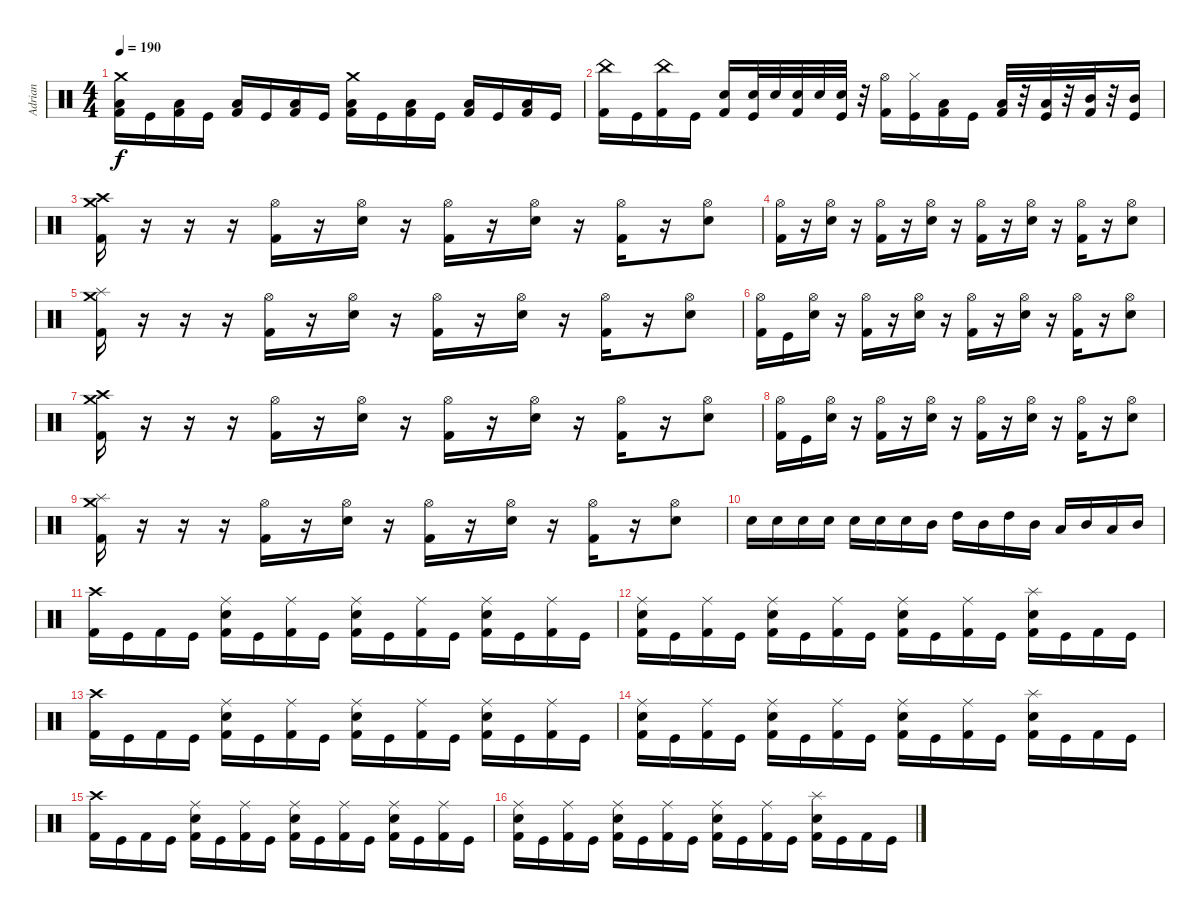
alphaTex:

\track ("Adrian" "Adrian") {instrument percussion}
\staff {score}
\articulation defaults
\ts (4 4)
\tempo 190
\clef neutral
\ks c
("Crash medium (hit)" "Low Tom (hit)" "Kick (hit) 2").16{dy f} "Kick (hit)".16 ("Low Tom (hit)" "Kick (hit) 2").16 "Kick (hit)".16 ("Low Tom (hit)" "Kick (hit) 2").16 "Kick (hit)".16 ("Low Tom (hit)" "Kick (hit) 2").16 "Kick (hit)".16 ("Crash medium (hit)" "Low Tom (hit)" "Kick (hit) 2").16 "Kick (hit)".16 ("Low Tom (hit)" "Kick (hit) 2").16 "Kick (hit)".16 ("Low Tom (hit)" "Kick (hit) 2").16 "Kick (hit)".16 ("Low Tom (hit)" "Kick (hit) 2").16 "Kick (hit)".16 |
("China (hit)" "Kick (hit) 2").16 "Kick (hit)".16 ("China (hit)" "Kick (hit) 2").16 "Kick (hit)".16 ("Electric Snare (hit)" "Kick (hit) 2").16 ("Electric Snare (hit)" "Kick (hit)").32 "Electric Snare (hit)".32 ("Electric Snare (hit)" "Kick (hit) 2").32 "Electric Snare (hit)".32 ("Electric Snare (hit)" "Kick (hit)").32 r.32 ("Hi-Hat (open)" "Kick (hit) 2").16 ("Hi-Hat (closed)" "Kick (hit)").16 ("Low Tom (hit)" "Kick (hit) 2").16 "Kick (hit)".16 ("Low Tom (hit)" "Kick (hit) 2").32 r.32 ("Low Tom (hit)" "Kick (hit)").32 r.32 ("Mid Tom (hit)" "Kick (hit) 2").32 r.32 ("Mid Tom (hit)" "Kick (hit)").16 |
("Crash high (hit)" "Crash medium (hit)" "Kick (hit) 2").16 r.16 r.16 r.16 ("Hi-Hat (open)" "Kick (hit) 2").16 r.16 ("Hi-Hat (open)" "Electric Snare (hit)").16 r.16 ("Hi-Hat (open)" "Kick (hit) 2").16 r.16 ("Hi-Hat (open)" "Electric Snare (hit)").16 r.16 ("Hi-Hat (open)" "Kick (hit) 2").16 r.16 ("Hi-Hat (open)" "Electric Snare (hit)").8 |
("Hi-Hat (open)" "Kick (hit) 2").16 r.16 ("Hi-Hat (open)" "Electric Snare (hit)").16 r.16 ("Hi-Hat (open)" "Kick (hit) 2").16 r.16 ("Hi-Hat (open)" "Electric Snare (hit)").16 r.16 ("Hi-Hat (open)" "Kick (hit) 2").16 r.16 ("Hi-Hat (open)" "Electric Snare (hit)").16 r.16 ("Hi-Hat (open)" "Kick (hit) 2").16 r.16 ("Hi-Hat (open)" "Electric Snare (hit)").8 |
("Splash (hit)" "Crash medium (hit)" "Kick (hit) 2").16 r.16 r.16 r.16 ("Hi-Hat (open)" "Kick (hit) 2").16 r.16 ("Hi-Hat (open)" "Electric Snare (hit)").16 r.16 ("Hi-Hat (open)" "Kick (hit) 2").16 r.16 ("Hi-Hat (open)" "Electric Snare (hit)").16 r.16 ("Hi-Hat (open)" "Kick (hit) 2").16 r.16 ("Hi-Hat (open)" "Electric Snare (hit)").8 |
("Hi-Hat (open)" "Kick (hit) 2").16 "Kick (hit)".16 ("Hi-Hat (open)" "Electric Snare (hit)").16 r.16 ("Hi-Hat (open)" "Kick (hit) 2").16 r.16 ("Hi-Hat (open)" "Electric Snare (hit)").16 r.16 ("Hi-Hat (open)" "Kick (hit) 2").16 r.16 ("Hi-Hat (open)" "Electric Snare (hit)").16 r.16 ("Hi-Hat (open)" "Kick (hit) 2").16 r.16 ("Hi-Hat (open)" "Electric Snare (hit)").8 |
("Crash high (hit)" "Crash medium (hit)" "Kick (hit) 2").16 r.16 r.16 r.16 ("Hi-Hat (open)" "Kick (hit) 2").16 r.16 ("Hi-Hat (open)" "Electric Snare (hit)").16 r.16 ("Hi-Hat (open)" "Kick (hit) 2").16 r.16 ("Hi-Hat (open)" "Electric Snare (hit)").16 r.16 ("Hi-Hat (open)" "Kick (hit) 2").16 r.16 ("Hi-Hat (open)" "Electric Snare (hit)").8 |
("Hi-Hat (open)" "Kick (hit) 2").16 "Kick (hit)".16 ("Hi-Hat (open)" "Electric Snare (hit)").16 r.16 ("Hi-Hat (open)" "Kick (hit) 2").16 r.16 ("Hi-Hat (open)" "Electric Snare (hit)").16 r.16 ("Hi-Hat (open)" "Kick (hit) 2").16 r.16 ("Hi-Hat (open)" "Electric Snare (hit)").16 r.16 ("Hi-Hat (open)" "Kick (hit) 2").16 r.16 ("Hi-Hat (open)" "Electric Snare (hit)").8 |
("Splash (hit)" "Crash medium (hit)" "Kick (hit) 2").16 r.16 r.16 r.16 ("Hi-Hat (open)" "Kick (hit) 2").16 r.16 ("Hi-Hat (open)" "Electric Snare (hit)").16 r.16 ("Hi-Hat (open)" "Kick (hit) 2").16 r.16 ("Hi-Hat (open)" "Electric Snare (hit)").16 r.16 ("Hi-Hat (open)" "Kick (hit) 2").16 r.16 ("Hi-Hat (open)" "Electric Snare (hit)").8 |
"Electric Snare (hit)".16 "Electric Snare (hit)".16 "Electric Snare (hit)".16 "Electric Snare (hit)".16 "Electric Snare (hit)".16 "Electric Snare (hit)".16 "Electric Snare (hit)".16 "Mid Tom (hit)".16 "High Tom (hit)".16 "Mid Tom (hit)".16 "High Tom (hit)".16 "Mid Tom (hit)".16 "Low Tom (hit)".16 "Mid Tom (hit)".16 "Low Tom (hit)".16 "Mid Tom (hit)".16 |
("Crash high (hit)" "Kick (hit) 2").16 "Kick (hit)".16 "Kick (hit) 2".16 "Kick (hit)".16 ("Ride (middle)" "Electric Snare (hit)" "Kick (hit) 2").16 "Kick (hit)".16 ("Ride (middle)" "Kick (hit) 2").16 "Kick (hit)".16 ("Ride (middle)" "Electric Snare (hit)" "Kick (hit) 2").16 "Kick (hit)".16 ("Ride (middle)" "Kick (hit) 2").16 "Kick (hit)".16 ("Ride (middle)" "Electric Snare (hit)" "Kick (hit) 2").16 "Kick (hit)".16 ("Ride (middle)" "Kick (hit) 2").16 "Kick (hit)".16 |
("Ride (middle)" "Electric Snare (hit)" "Kick (hit) 2").16 "Kick (hit)".16 ("Ride (middle)" "Kick (hit) 2").16 "Kick (hit)".16 ("Ride (middle)" "Electric Snare (hit)" "Kick (hit) 2").16 "Kick (hit)".16 ("Ride (middle)" "Kick (hit) 2").16 "Kick (hit)".16 ("Ride (middle)" "Electric Snare (hit)" "Kick (hit) 2").16 "Kick (hit)".16 ("Ride (middle)" "Kick (hit) 2").16 "Kick (hit)".16 ("Splash (hit)" "Electric Snare (hit)" "Kick (hit) 2").16 "Kick (hit)".16 "Kick (hit) 2".16 "Kick (hit)".16 |
("Crash high (hit)" "Kick (hit) 2").16 "Kick (hit)".16 "Kick (hit) 2".16 "Kick (hit)".16 ("Ride (middle)" "Electric Snare (hit)" "Kick (hit) 2").16 "Kick (hit)".16 ("Ride (middle)" "Kick (hit) 2").16 "Kick (hit)".16 ("Ride (middle)" "Electric Snare (hit)" "Kick (hit) 2").16 "Kick (hit)".16 ("Ride (middle)" "Kick (hit) 2").16 "Kick (hit)".16 ("Ride (middle)" "Electric Snare (hit)" "Kick (hit) 2").16 "Kick (hit)".16 ("Ride (middle)" "Kick (hit) 2").16 "Kick (hit)".16 |
("Ride (middle)" "Electric Snare (hit)" "Kick (hit) 2").16 "Kick (hit)".16 ("Ride (middle)" "Kick (hit) 2").16 "Kick (hit)".16 ("Ride (middle)" "Electric Snare (hit)" "Kick (hit) 2").16 "Kick (hit)".16 ("Ride (middle)" "Kick (hit) 2").16 "Kick (hit)".16 ("Ride (middle)" "Electric Snare (hit)" "Kick (hit) 2").16 "Kick (hit)".16 ("Ride (middle)" "Kick (hit) 2").16 "Kick (hit)".16 ("Splash (hit)" "Electric Snare (hit)" "Kick (hit) 2").16 "Kick (hit)".16 "Kick (hit) 2".16 "Kick (hit)".16 |
("Crash high (hit)" "Kick (hit) 2").16 "Kick (hit)".16 "Kick (hit) 2".16 "Kick (hit)".16 ("Ride (middle)" "Electric Snare (hit)" "Kick (hit) 2").16 "Kick (hit)".16 ("Ride (middle)" "Kick (hit) 2").16 "Kick (hit)".16 ("Ride (middle)" "Electric Snare (hit)" "Kick (hit) 2").16 "Kick (hit)".16 ("Ride (middle)" "Kick (hit) 2").16 "Kick (hit)".16 ("Ride (middle)" "Electric Snare (hit)" "Kick (hit) 2").16 "Kick (hit)".16 ("Ride (middle)" "Kick (hit) 2").16 "Kick (hit)".16 |
("Ride (middle)" "Electric Snare (hit)" "Kick (hit) 2").16 "Kick (hit)".16 ("Ride (middle)" "Kick (hit) 2").16 "Kick (hit)".16 ("Ride (middle)" "Electric Snare (hit)" "Kick (hit) 2").16 "Kick (hit)".16 ("Ride (middle)" "Kick (hit) 2").16 "Kick (hit)".16 ("Ride (middle)" "Electric Snare (hit)" "Kick (hit) 2").16 "Kick (hit)".16 ("Ride (middle)" "Kick (hit) 2").16 "Kick (hit)".16 ("Splash (hit)" "Electric Snare (hit)" "Kick (hit) 2").16 "Kick (hit)".16 "Kick (hit) 2".16 "Kick (hit)".16
